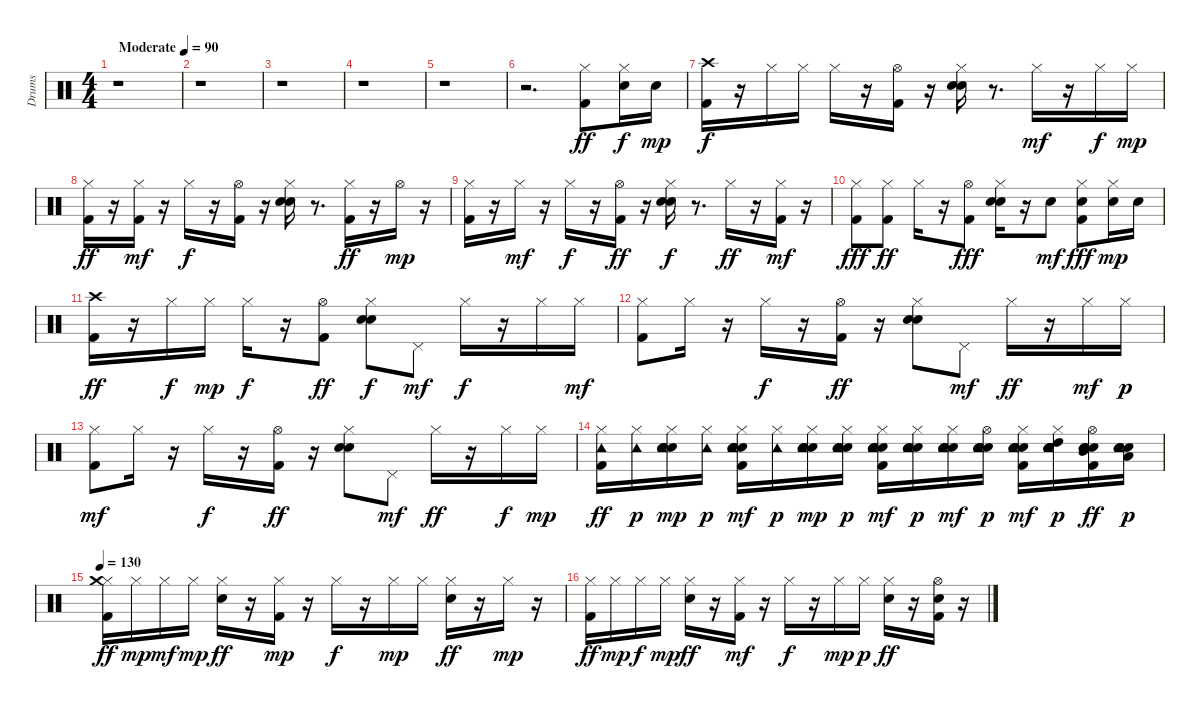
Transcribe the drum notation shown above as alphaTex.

\track ("Drums  " "Drums  ") {instrument percussion}
\staff {score}
\articulation defaults
\ts (4 4)
\tempo (90 "Moderate")
\clef neutral
\ks c
r.1{dy ff} |
r.1 |
r.1 |
r.1 |
r.1 |
r.2{d} ("Kick (hit) 2" "Hi-Hat (closed)").8 ("Hi-Hat (closed)" "Snare (hit) 2").16{dy f} "Snare (hit) 2".16{dy mp} |
("Kick (hit) 2" "Crash high (hit)").16{dy f} r.16 "Hi-Hat (closed)".16 "Hi-Hat (closed)".16 "Hi-Hat (closed)".16 r.16 ("Kick (hit) 2" "Hi-Hat (open)").16 r.16 ("Snare (hit) 2" "Electric Snare (hit)" "Hi-Hat (closed)").16 r.8{d} "Hi-Hat (closed)".16{dy mf} r.16 "Hi-Hat (closed)".16{dy f} "Hi-Hat (closed)".16{dy mp} |
("Kick (hit) 2" "Hi-Hat (closed)").16{dy ff} r.16 ("Kick (hit) 2" "Hi-Hat (closed)").16{dy mf} r.16 "Hi-Hat (closed)".16{dy f} r.16 ("Kick (hit) 2" "Hi-Hat (open)").16 r.16 ("Snare (hit) 2" "Electric Snare (hit)" "Hi-Hat (closed)").16 r.8{d} ("Kick (hit) 2" "Hi-Hat (closed)").16{dy ff} r.16 "Hi-Hat (open)".16{dy mp} r.16 |
("Kick (hit) 2" "Hi-Hat (closed)").16 r.16 "Hi-Hat (closed)".16{dy mf} r.16 "Hi-Hat (closed)".16{dy f} r.16 ("Kick (hit) 2" "Hi-Hat (open)").16{dy ff} r.16 ("Snare (hit) 2" "Electric Snare (hit)" "Hi-Hat (closed)").16{dy f} r.8{d} "Hi-Hat (closed)".16{dy ff} r.16 ("Kick (hit) 2" "Hi-Hat (closed)").16{dy mf} r.16 |
("Kick (hit) 2" "Hi-Hat (closed)").8{dy fff} ("Kick (hit) 2" "Hi-Hat (closed)").8{dy ff} "Hi-Hat (closed)".16 r.16 ("Kick (hit) 2" "Hi-Hat (open)").8{dy fff} ("Snare (hit) 2" "Electric Snare (hit)" "Hi-Hat (closed)").16 r.16 "Electric Snare (hit)".8{dy mf} ("Kick (hit) 2" "Hi-Hat (closed)" "Electric Snare (hit)").8{dy fff} ("Hi-Hat (closed)" "Snare (hit) 2").16{dy mp} "Snare (hit) 2".16 |
("Kick (hit) 2" "Crash high (hit)").16{dy ff} r.16 "Hi-Hat (closed)".16{dy f} "Hi-Hat (closed)".16{dy mp} "Hi-Hat (closed)".16{dy f} r.16 ("Kick (hit) 2" "Hi-Hat (open)").8{dy ff} ("Snare (hit) 2" "Electric Snare (hit)" "Hi-Hat (closed)").8{dy f} "Pedal Hi-Hat (hit)".8{dy mf} "Hi-Hat (closed)".16{dy f} r.16 "Hi-Hat (closed)".16 "Hi-Hat (closed)".16{dy mf} |
("Hi-Hat (closed)" "Kick (hit) 2").8 "Hi-Hat (closed)".16 r.16 "Hi-Hat (closed)".16{dy f} r.16 ("Kick (hit) 2" "Hi-Hat (open)").16{dy ff} r.16 ("Electric Snare (hit)" "Snare (hit) 2" "Hi-Hat (closed)").8 "Pedal Hi-Hat (hit)".8{dy mf} "Hi-Hat (closed)".16{dy ff} r.16 "Hi-Hat (closed)".16{dy mf} "Hi-Hat (closed)".16{dy p} |
("Hi-Hat (closed)" "Kick (hit) 2").8{dy mf} "Hi-Hat (closed)".16 r.16 "Hi-Hat (closed)".16{dy f} r.16 ("Kick (hit) 2" "Hi-Hat (open)").16{dy ff} r.16 ("Electric Snare (hit)" "Snare (hit) 2" "Hi-Hat (closed)").8 "Pedal Hi-Hat (hit)".8{dy mf} "Hi-Hat (closed)".16{dy ff} r.16 "Hi-Hat (closed)".16{dy f} "Hi-Hat (closed)".16{dy mp} |
("Kick (hit) 2" "Hi-Hat (closed)" "Tambourine (hit)").16{dy ff} ("Hi-Hat (closed)" "Tambourine (hit)").16{dy p} ("Snare (hit) 2" "Snare (hit) 2" "Electric Snare (hit)" "Hi-Hat (closed)" "Tambourine (hit)").16{dy mp} ("Hi-Hat (closed)" "Tambourine (hit)").16{dy p} ("Kick (hit) 2" "Snare (hit) 2" "Snare (hit) 2" "Electric Snare (hit)" "Hi-Hat (closed)" "Tambourine (hit)").16{dy mf} ("Hi-Hat (closed)" "Tambourine (hit)").16{dy p} ("Snare (hit) 2" "Snare (hit) 2" "Electric Snare (hit)" "Hi-Hat (closed)" "Tambourine (hit)").16{dy mp} ("Snare (hit) 2" "Snare (hit) 2" "Electric Snare (hit)" "Hi-Hat (closed)" "Tambourine (hit)").16{dy p} ("Kick (hit) 2" "Snare (hit) 2" "Snare (hit) 2" "Electric Snare (hit)" "Hi-Hat (closed)" "Tambourine (hit)").16{dy mf} ("Snare (hit) 2" "Snare (hit) 2" "Electric Snare (hit)" "Hi-Hat (closed)" "Tambourine (hit)").16{dy p} ("Snare (hit) 2" "Snare (hit) 2" "Electric Snare (hit)" "Hi-Hat (closed)" "Tambourine (hit)").16{dy mf} ("Snare (hit) 2" "Snare (hit) 2" "Electric Snare (hit)" "Hi-Hat (open)" "Tambourine (hit)").16{dy p} ("Kick (hit) 2" "Snare (hit) 2" "Snare (hit) 2" "Electric Snare (hit)" "Hi-Hat (closed)" "Tambourine (hit)").16{dy mf} ("Snare (hit) 2" "Snare (hit) 2" "Electric Snare (hit)" "Hi-Hat (closed)" "High Tom (hit)" "Tambourine (hit)").16{dy p} ("Kick (hit) 2" "Snare (hit) 2" "Snare (hit) 2" "Electric Snare (hit)" "Hi-Hat (open)" "Mid Tom (hit)").16{dy ff} ("Snare (hit) 2" "Snare (hit) 2" "Electric Snare (hit)" "Low Floor Tom (hit)" "Tambourine (hit)").16{dy p} |
\tempo 130
("Kick (hit) 2" "Hi-Hat (closed)" "Crash medium (hit)").16{dy ff} "Hi-Hat (closed)".16{dy mp} "Hi-Hat (closed)".16{dy mf} "Hi-Hat (closed)".16{dy mp} ("Snare (hit) 2" "Hi-Hat (closed)").16{dy ff} r.16 ("Kick (hit) 2" "Hi-Hat (closed)").16{dy mp} r.16 "Hi-Hat (closed)".16{dy f} r.16 "Hi-Hat (closed)".16{dy mp} "Hi-Hat (closed)".16 ("Snare (hit) 2" "Hi-Hat (closed)").16{dy ff} r.16 "Hi-Hat (closed)".16{dy mp} r.16 |
("Kick (hit) 2" "Hi-Hat (closed)").16{dy ff} "Hi-Hat (closed)".16{dy mp} "Hi-Hat (closed)".16{dy f} "Hi-Hat (closed)".16{dy mp} ("Snare (hit) 2" "Hi-Hat (closed)").16{dy ff} r.16 ("Kick (hit) 2" "Hi-Hat (closed)").16{dy mf} r.16 "Hi-Hat (closed)".16{dy f} r.16 "Hi-Hat (closed)".16{dy mp} "Hi-Hat (closed)".16{dy p} ("Snare (hit) 2" "Hi-Hat (closed)").16{dy ff} r.16 ("Kick (hit) 2" "Snare (hit) 2" "Hi-Hat (open)").16 r.16
